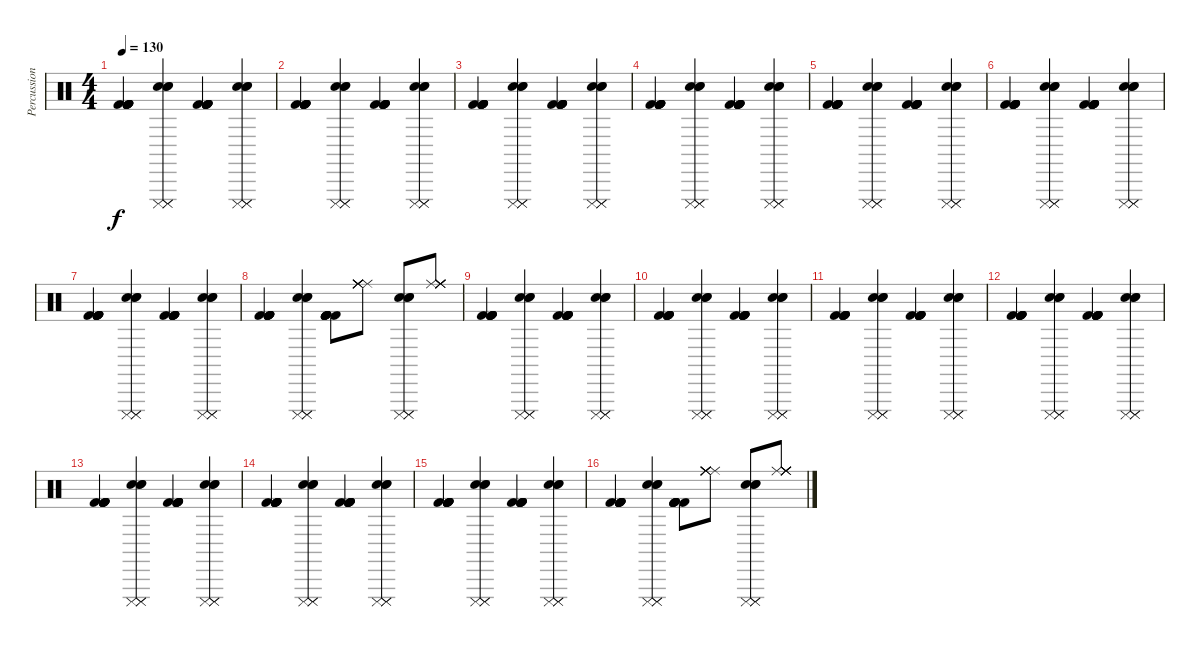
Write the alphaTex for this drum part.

\track ("Percussion" "Percussion") {instrument percussion}
\staff {score}
\articulation defaults
\ts (4 4)
\tempo 130
\clef neutral
\ks c
("Kick (hit) 2" "Kick (hit) 2" "Kick (hit) 2" "Kick (hit) 2" "Kick (hit) 2" "Kick (hit) 2").4{dy f} ("Electric Snare (hit)" "Cuica (mute)" "Electric Snare (hit)" "Cuica (mute)" "Electric Snare (hit)" "Cuica (mute)").4 ("Kick (hit) 2" "Kick (hit) 2" "Kick (hit) 2" "Kick (hit) 2" "Kick (hit) 2" "Kick (hit) 2").4 ("Electric Snare (hit)" "Cuica (mute)" "Electric Snare (hit)" "Cuica (mute)" "Electric Snare (hit)" "Cuica (mute)").4 |
("Kick (hit) 2" "Kick (hit) 2" "Kick (hit) 2" "Kick (hit) 2" "Kick (hit) 2" "Kick (hit) 2").4 ("Electric Snare (hit)" "Cuica (mute)" "Electric Snare (hit)" "Cuica (mute)" "Electric Snare (hit)" "Cuica (mute)").4 ("Kick (hit) 2" "Kick (hit) 2" "Kick (hit) 2" "Kick (hit) 2" "Kick (hit) 2" "Kick (hit) 2").4 ("Electric Snare (hit)" "Cuica (mute)" "Electric Snare (hit)" "Cuica (mute)" "Electric Snare (hit)" "Cuica (mute)").4 |
("Kick (hit) 2" "Kick (hit) 2" "Kick (hit) 2" "Kick (hit) 2" "Kick (hit) 2" "Kick (hit) 2").4 ("Electric Snare (hit)" "Cuica (mute)" "Electric Snare (hit)" "Cuica (mute)" "Electric Snare (hit)" "Cuica (mute)").4 ("Kick (hit) 2" "Kick (hit) 2" "Kick (hit) 2" "Kick (hit) 2" "Kick (hit) 2" "Kick (hit) 2").4 ("Electric Snare (hit)" "Cuica (mute)" "Electric Snare (hit)" "Cuica (mute)" "Electric Snare (hit)" "Cuica (mute)").4 |
("Kick (hit) 2" "Kick (hit) 2" "Kick (hit) 2" "Kick (hit) 2" "Kick (hit) 2" "Kick (hit) 2").4 ("Electric Snare (hit)" "Cuica (mute)" "Electric Snare (hit)" "Cuica (mute)" "Electric Snare (hit)" "Cuica (mute)").4 ("Kick (hit) 2" "Kick (hit) 2" "Kick (hit) 2" "Kick (hit) 2" "Kick (hit) 2" "Kick (hit) 2").4 ("Electric Snare (hit)" "Cuica (mute)" "Electric Snare (hit)" "Cuica (mute)" "Electric Snare (hit)" "Cuica (mute)").4 |
("Kick (hit) 2" "Kick (hit) 2" "Kick (hit) 2" "Kick (hit) 2" "Kick (hit) 2" "Kick (hit) 2").4 ("Electric Snare (hit)" "Cuica (mute)" "Electric Snare (hit)" "Cuica (mute)" "Electric Snare (hit)" "Cuica (mute)").4 ("Kick (hit) 2" "Kick (hit) 2" "Kick (hit) 2" "Kick (hit) 2" "Kick (hit) 2" "Kick (hit) 2").4 ("Electric Snare (hit)" "Cuica (mute)" "Electric Snare (hit)" "Cuica (mute)" "Electric Snare (hit)" "Cuica (mute)").4 |
("Kick (hit) 2" "Kick (hit) 2" "Kick (hit) 2" "Kick (hit) 2" "Kick (hit) 2" "Kick (hit) 2").4 ("Electric Snare (hit)" "Cuica (mute)" "Electric Snare (hit)" "Cuica (mute)" "Electric Snare (hit)" "Cuica (mute)").4 ("Kick (hit) 2" "Kick (hit) 2" "Kick (hit) 2" "Kick (hit) 2" "Kick (hit) 2" "Kick (hit) 2").4 ("Electric Snare (hit)" "Cuica (mute)" "Electric Snare (hit)" "Cuica (mute)" "Electric Snare (hit)" "Cuica (mute)").4 |
("Kick (hit) 2" "Kick (hit) 2" "Kick (hit) 2" "Kick (hit) 2" "Kick (hit) 2" "Kick (hit) 2").4 ("Electric Snare (hit)" "Cuica (mute)" "Electric Snare (hit)" "Cuica (mute)" "Electric Snare (hit)" "Cuica (mute)").4 ("Kick (hit) 2" "Kick (hit) 2" "Kick (hit) 2" "Kick (hit) 2" "Kick (hit) 2" "Kick (hit) 2").4 ("Electric Snare (hit)" "Cuica (mute)" "Electric Snare (hit)" "Cuica (mute)" "Electric Snare (hit)" "Cuica (mute)").4 |
("Kick (hit) 2" "Kick (hit) 2" "Kick (hit) 2" "Kick (hit) 2" "Kick (hit) 2" "Kick (hit) 2").4 ("Electric Snare (hit)" "Cuica (mute)" "Electric Snare (hit)" "Cuica (mute)" "Electric Snare (hit)" "Cuica (mute)").4 ("Kick (hit) 2" "Kick (hit) 2" "Kick (hit) 2" "Kick (hit) 2" "Kick (hit) 2" "Kick (hit) 2").8 ("Ride (middle)" "Ride (middle)" "Ride (middle)" "Ride (middle)" "Ride (middle)" "Ride (middle)").8 ("Electric Snare (hit)" "Cuica (mute)" "Electric Snare (hit)" "Cuica (mute)" "Electric Snare (hit)" "Cuica (mute)").8 ("Ride (middle)" "Ride (middle)" "Ride (middle)" "Ride (middle)" "Ride (middle)" "Ride (middle)").8 |
("Kick (hit) 2" "Kick (hit) 2" "Kick (hit) 2" "Kick (hit) 2" "Kick (hit) 2" "Kick (hit) 2").4 ("Electric Snare (hit)" "Cuica (mute)" "Electric Snare (hit)" "Cuica (mute)" "Electric Snare (hit)" "Cuica (mute)").4 ("Kick (hit) 2" "Kick (hit) 2" "Kick (hit) 2" "Kick (hit) 2" "Kick (hit) 2" "Kick (hit) 2").4 ("Electric Snare (hit)" "Cuica (mute)" "Electric Snare (hit)" "Cuica (mute)" "Electric Snare (hit)" "Cuica (mute)").4 |
("Kick (hit) 2" "Kick (hit) 2" "Kick (hit) 2" "Kick (hit) 2" "Kick (hit) 2" "Kick (hit) 2").4 ("Electric Snare (hit)" "Cuica (mute)" "Electric Snare (hit)" "Cuica (mute)" "Electric Snare (hit)" "Cuica (mute)").4 ("Kick (hit) 2" "Kick (hit) 2" "Kick (hit) 2" "Kick (hit) 2" "Kick (hit) 2" "Kick (hit) 2").4 ("Electric Snare (hit)" "Cuica (mute)" "Electric Snare (hit)" "Cuica (mute)" "Electric Snare (hit)" "Cuica (mute)").4 |
("Kick (hit) 2" "Kick (hit) 2" "Kick (hit) 2" "Kick (hit) 2" "Kick (hit) 2" "Kick (hit) 2").4 ("Electric Snare (hit)" "Cuica (mute)" "Electric Snare (hit)" "Cuica (mute)" "Electric Snare (hit)" "Cuica (mute)").4 ("Kick (hit) 2" "Kick (hit) 2" "Kick (hit) 2" "Kick (hit) 2" "Kick (hit) 2" "Kick (hit) 2").4 ("Electric Snare (hit)" "Cuica (mute)" "Electric Snare (hit)" "Cuica (mute)" "Electric Snare (hit)" "Cuica (mute)").4 |
("Kick (hit) 2" "Kick (hit) 2" "Kick (hit) 2" "Kick (hit) 2" "Kick (hit) 2" "Kick (hit) 2").4 ("Electric Snare (hit)" "Cuica (mute)" "Electric Snare (hit)" "Cuica (mute)" "Electric Snare (hit)" "Cuica (mute)").4 ("Kick (hit) 2" "Kick (hit) 2" "Kick (hit) 2" "Kick (hit) 2" "Kick (hit) 2" "Kick (hit) 2").4 ("Electric Snare (hit)" "Cuica (mute)" "Electric Snare (hit)" "Cuica (mute)" "Electric Snare (hit)" "Cuica (mute)").4 |
("Kick (hit) 2" "Kick (hit) 2" "Kick (hit) 2" "Kick (hit) 2" "Kick (hit) 2" "Kick (hit) 2").4 ("Electric Snare (hit)" "Cuica (mute)" "Electric Snare (hit)" "Cuica (mute)" "Electric Snare (hit)" "Cuica (mute)").4 ("Kick (hit) 2" "Kick (hit) 2" "Kick (hit) 2" "Kick (hit) 2" "Kick (hit) 2" "Kick (hit) 2").4 ("Electric Snare (hit)" "Cuica (mute)" "Electric Snare (hit)" "Cuica (mute)" "Electric Snare (hit)" "Cuica (mute)").4 |
("Kick (hit) 2" "Kick (hit) 2" "Kick (hit) 2" "Kick (hit) 2" "Kick (hit) 2" "Kick (hit) 2").4 ("Electric Snare (hit)" "Cuica (mute)" "Electric Snare (hit)" "Cuica (mute)" "Electric Snare (hit)" "Cuica (mute)").4 ("Kick (hit) 2" "Kick (hit) 2" "Kick (hit) 2" "Kick (hit) 2" "Kick (hit) 2" "Kick (hit) 2").4 ("Electric Snare (hit)" "Cuica (mute)" "Electric Snare (hit)" "Cuica (mute)" "Electric Snare (hit)" "Cuica (mute)").4 |
("Kick (hit) 2" "Kick (hit) 2" "Kick (hit) 2" "Kick (hit) 2" "Kick (hit) 2" "Kick (hit) 2").4 ("Electric Snare (hit)" "Cuica (mute)" "Electric Snare (hit)" "Cuica (mute)" "Electric Snare (hit)" "Cuica (mute)").4 ("Kick (hit) 2" "Kick (hit) 2" "Kick (hit) 2" "Kick (hit) 2" "Kick (hit) 2" "Kick (hit) 2").4 ("Electric Snare (hit)" "Cuica (mute)" "Electric Snare (hit)" "Cuica (mute)" "Electric Snare (hit)" "Cuica (mute)").4 |
("Kick (hit) 2" "Kick (hit) 2" "Kick (hit) 2" "Kick (hit) 2" "Kick (hit) 2" "Kick (hit) 2").4 ("Electric Snare (hit)" "Cuica (mute)" "Electric Snare (hit)" "Cuica (mute)" "Electric Snare (hit)" "Cuica (mute)").4 ("Kick (hit) 2" "Kick (hit) 2" "Kick (hit) 2" "Kick (hit) 2" "Kick (hit) 2" "Kick (hit) 2").8 ("Ride (middle)" "Ride (middle)" "Ride (middle)" "Ride (middle)" "Ride (middle)" "Ride (middle)").8 ("Electric Snare (hit)" "Cuica (mute)" "Electric Snare (hit)" "Cuica (mute)" "Electric Snare (hit)" "Cuica (mute)").8 ("Ride (middle)" "Ride (middle)" "Ride (middle)" "Ride (middle)" "Ride (middle)" "Ride (middle)").8
